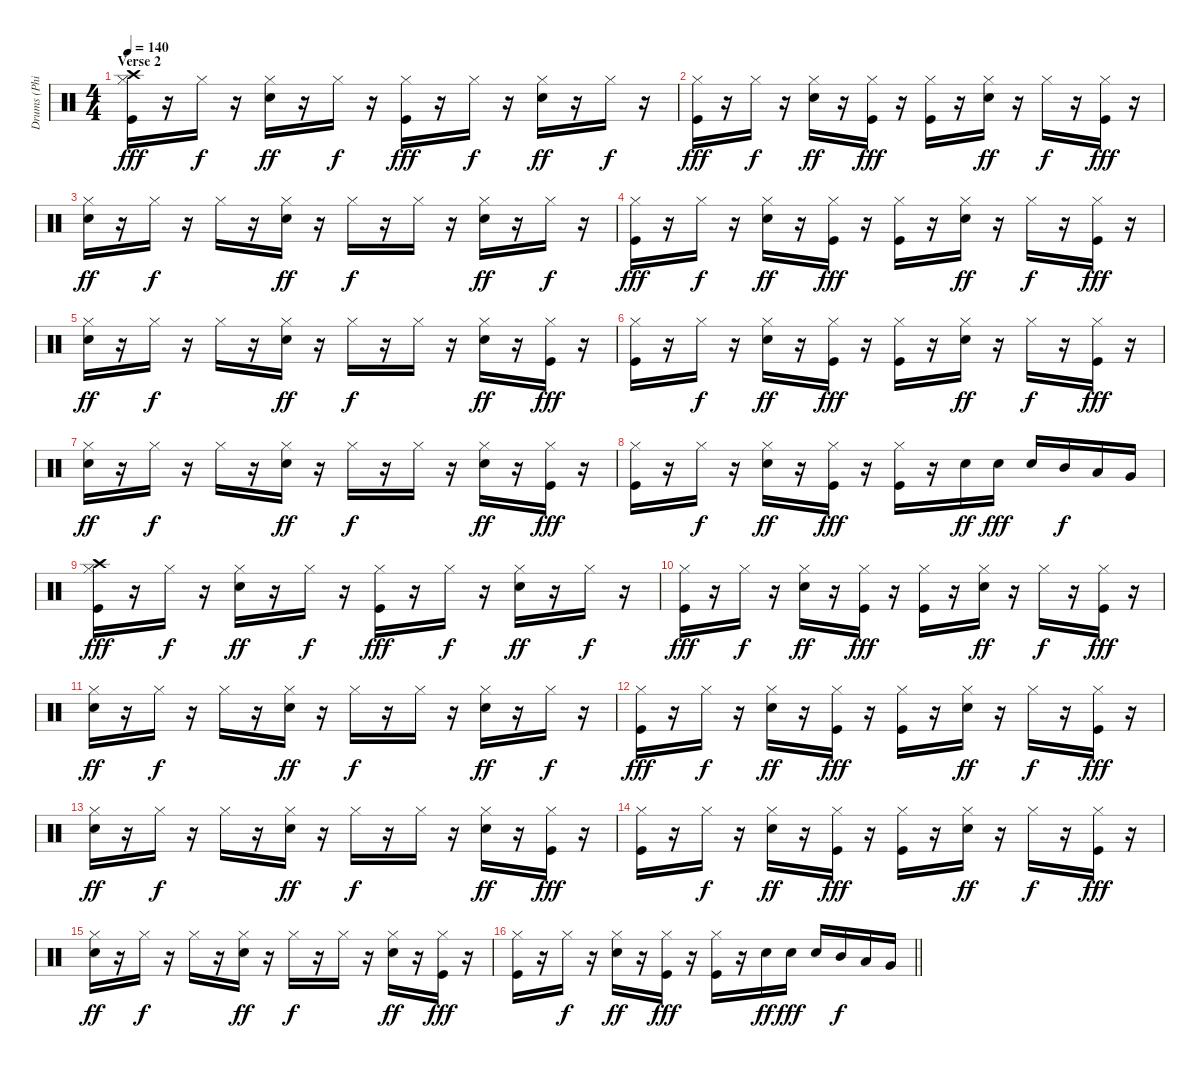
\track ("Drums (Phillip Selway)" "Drums (Phi") {instrument percussion}
\staff {score}
\articulation defaults
\ts (4 4)
\section ("" "Verse 2")
\tempo 140
\clef neutral
\ks c
("Crash high (hit)" "Hi-Hat (closed)" "Kick (hit)").16{dy fff} r.16 "Hi-Hat (closed)".16{dy f} r.16 ("Hi-Hat (closed)" "Electric Snare (hit)").16{dy ff} r.16 "Hi-Hat (closed)".16{dy f} r.16 ("Hi-Hat (closed)" "Kick (hit)").16{dy fff} r.16 "Hi-Hat (closed)".16{dy f} r.16 ("Hi-Hat (closed)" "Electric Snare (hit)").16{dy ff} r.16 "Hi-Hat (closed)".16{dy f} r.16 |
("Hi-Hat (closed)" "Kick (hit)").16{dy fff} r.16 "Hi-Hat (closed)".16{dy f} r.16 ("Hi-Hat (closed)" "Electric Snare (hit)").16{dy ff} r.16 ("Hi-Hat (closed)" "Kick (hit)").16{dy fff} r.16 ("Hi-Hat (closed)" "Kick (hit)").16 r.16 ("Hi-Hat (closed)" "Electric Snare (hit)").16{dy ff} r.16 "Hi-Hat (closed)".16{dy f} r.16 ("Hi-Hat (closed)" "Kick (hit)").16{dy fff} r.16 |
("Hi-Hat (closed)" "Electric Snare (hit)").16{dy ff} r.16 "Hi-Hat (closed)".16{dy f} r.16 "Hi-Hat (closed)".16 r.16 ("Hi-Hat (closed)" "Electric Snare (hit)").16{dy ff} r.16 "Hi-Hat (closed)".16{dy f} r.16 "Hi-Hat (closed)".16 r.16 ("Hi-Hat (closed)" "Electric Snare (hit)").16{dy ff} r.16 "Hi-Hat (closed)".16{dy f} r.16 |
("Hi-Hat (closed)" "Kick (hit)").16{dy fff} r.16 "Hi-Hat (closed)".16{dy f} r.16 ("Hi-Hat (closed)" "Electric Snare (hit)").16{dy ff} r.16 ("Hi-Hat (closed)" "Kick (hit)").16{dy fff} r.16 ("Hi-Hat (closed)" "Kick (hit)").16 r.16 ("Hi-Hat (closed)" "Electric Snare (hit)").16{dy ff} r.16 "Hi-Hat (closed)".16{dy f} r.16 ("Hi-Hat (closed)" "Kick (hit)").16{dy fff} r.16 |
("Hi-Hat (closed)" "Electric Snare (hit)").16{dy ff} r.16 "Hi-Hat (closed)".16{dy f} r.16 "Hi-Hat (closed)".16 r.16 ("Hi-Hat (closed)" "Electric Snare (hit)").16{dy ff} r.16 "Hi-Hat (closed)".16{dy f} r.16 "Hi-Hat (closed)".16 r.16 ("Hi-Hat (closed)" "Electric Snare (hit)").16{dy ff} r.16 ("Hi-Hat (closed)" "Kick (hit)").16{dy fff} r.16 |
("Hi-Hat (closed)" "Kick (hit)").16 r.16 "Hi-Hat (closed)".16{dy f} r.16 ("Hi-Hat (closed)" "Electric Snare (hit)").16{dy ff} r.16 ("Hi-Hat (closed)" "Kick (hit)").16{dy fff} r.16 ("Hi-Hat (closed)" "Kick (hit)").16 r.16 ("Hi-Hat (closed)" "Electric Snare (hit)").16{dy ff} r.16 "Hi-Hat (closed)".16{dy f} r.16 ("Hi-Hat (closed)" "Kick (hit)").16{dy fff} r.16 |
("Hi-Hat (closed)" "Electric Snare (hit)").16{dy ff} r.16 "Hi-Hat (closed)".16{dy f} r.16 "Hi-Hat (closed)".16 r.16 ("Hi-Hat (closed)" "Electric Snare (hit)").16{dy ff} r.16 "Hi-Hat (closed)".16{dy f} r.16 "Hi-Hat (closed)".16 r.16 ("Hi-Hat (closed)" "Electric Snare (hit)").16{dy ff} r.16 ("Hi-Hat (closed)" "Kick (hit)").16{dy fff} r.16 |
("Hi-Hat (closed)" "Kick (hit)").16 r.16 "Hi-Hat (closed)".16{dy f} r.16 ("Hi-Hat (closed)" "Electric Snare (hit)").16{dy ff} r.16 ("Hi-Hat (closed)" "Kick (hit)").16{dy fff} r.16 ("Hi-Hat (closed)" "Kick (hit)").16 r.16 "Electric Snare (hit)".16{dy ff} "Electric Snare (hit)".16{dy fff} "Electric Snare (hit)".16 "Mid Tom (hit)".16{dy f} "Low Tom (hit)".16 "Very Low Tom (hit)".16 |
("Crash high (hit)" "Hi-Hat (closed)" "Kick (hit)").16{dy fff} r.16 "Hi-Hat (closed)".16{dy f} r.16 ("Hi-Hat (closed)" "Electric Snare (hit)").16{dy ff} r.16 "Hi-Hat (closed)".16{dy f} r.16 ("Hi-Hat (closed)" "Kick (hit)").16{dy fff} r.16 "Hi-Hat (closed)".16{dy f} r.16 ("Hi-Hat (closed)" "Electric Snare (hit)").16{dy ff} r.16 "Hi-Hat (closed)".16{dy f} r.16 |
("Hi-Hat (closed)" "Kick (hit)").16{dy fff} r.16 "Hi-Hat (closed)".16{dy f} r.16 ("Hi-Hat (closed)" "Electric Snare (hit)").16{dy ff} r.16 ("Hi-Hat (closed)" "Kick (hit)").16{dy fff} r.16 ("Hi-Hat (closed)" "Kick (hit)").16 r.16 ("Hi-Hat (closed)" "Electric Snare (hit)").16{dy ff} r.16 "Hi-Hat (closed)".16{dy f} r.16 ("Hi-Hat (closed)" "Kick (hit)").16{dy fff} r.16 |
("Hi-Hat (closed)" "Electric Snare (hit)").16{dy ff} r.16 "Hi-Hat (closed)".16{dy f} r.16 "Hi-Hat (closed)".16 r.16 ("Hi-Hat (closed)" "Electric Snare (hit)").16{dy ff} r.16 "Hi-Hat (closed)".16{dy f} r.16 "Hi-Hat (closed)".16 r.16 ("Hi-Hat (closed)" "Electric Snare (hit)").16{dy ff} r.16 "Hi-Hat (closed)".16{dy f} r.16 |
("Hi-Hat (closed)" "Kick (hit)").16{dy fff} r.16 "Hi-Hat (closed)".16{dy f} r.16 ("Hi-Hat (closed)" "Electric Snare (hit)").16{dy ff} r.16 ("Hi-Hat (closed)" "Kick (hit)").16{dy fff} r.16 ("Hi-Hat (closed)" "Kick (hit)").16 r.16 ("Hi-Hat (closed)" "Electric Snare (hit)").16{dy ff} r.16 "Hi-Hat (closed)".16{dy f} r.16 ("Hi-Hat (closed)" "Kick (hit)").16{dy fff} r.16 |
("Hi-Hat (closed)" "Electric Snare (hit)").16{dy ff} r.16 "Hi-Hat (closed)".16{dy f} r.16 "Hi-Hat (closed)".16 r.16 ("Hi-Hat (closed)" "Electric Snare (hit)").16{dy ff} r.16 "Hi-Hat (closed)".16{dy f} r.16 "Hi-Hat (closed)".16 r.16 ("Hi-Hat (closed)" "Electric Snare (hit)").16{dy ff} r.16 ("Hi-Hat (closed)" "Kick (hit)").16{dy fff} r.16 |
("Hi-Hat (closed)" "Kick (hit)").16 r.16 "Hi-Hat (closed)".16{dy f} r.16 ("Hi-Hat (closed)" "Electric Snare (hit)").16{dy ff} r.16 ("Hi-Hat (closed)" "Kick (hit)").16{dy fff} r.16 ("Hi-Hat (closed)" "Kick (hit)").16 r.16 ("Hi-Hat (closed)" "Electric Snare (hit)").16{dy ff} r.16 "Hi-Hat (closed)".16{dy f} r.16 ("Hi-Hat (closed)" "Kick (hit)").16{dy fff} r.16 |
("Hi-Hat (closed)" "Electric Snare (hit)").16{dy ff} r.16 "Hi-Hat (closed)".16{dy f} r.16 "Hi-Hat (closed)".16 r.16 ("Hi-Hat (closed)" "Electric Snare (hit)").16{dy ff} r.16 "Hi-Hat (closed)".16{dy f} r.16 "Hi-Hat (closed)".16 r.16 ("Hi-Hat (closed)" "Electric Snare (hit)").16{dy ff} r.16 ("Hi-Hat (closed)" "Kick (hit)").16{dy fff} r.16 |
\barLineRight lightlight
("Hi-Hat (closed)" "Kick (hit)").16 r.16 "Hi-Hat (closed)".16{dy f} r.16 ("Hi-Hat (closed)" "Electric Snare (hit)").16{dy ff} r.16 ("Hi-Hat (closed)" "Kick (hit)").16{dy fff} r.16 ("Hi-Hat (closed)" "Kick (hit)").16 r.16 "Electric Snare (hit)".16{dy ff} "Electric Snare (hit)".16{dy fff} "Electric Snare (hit)".16 "Mid Tom (hit)".16{dy f} "Low Tom (hit)".16 "Very Low Tom (hit)".16
